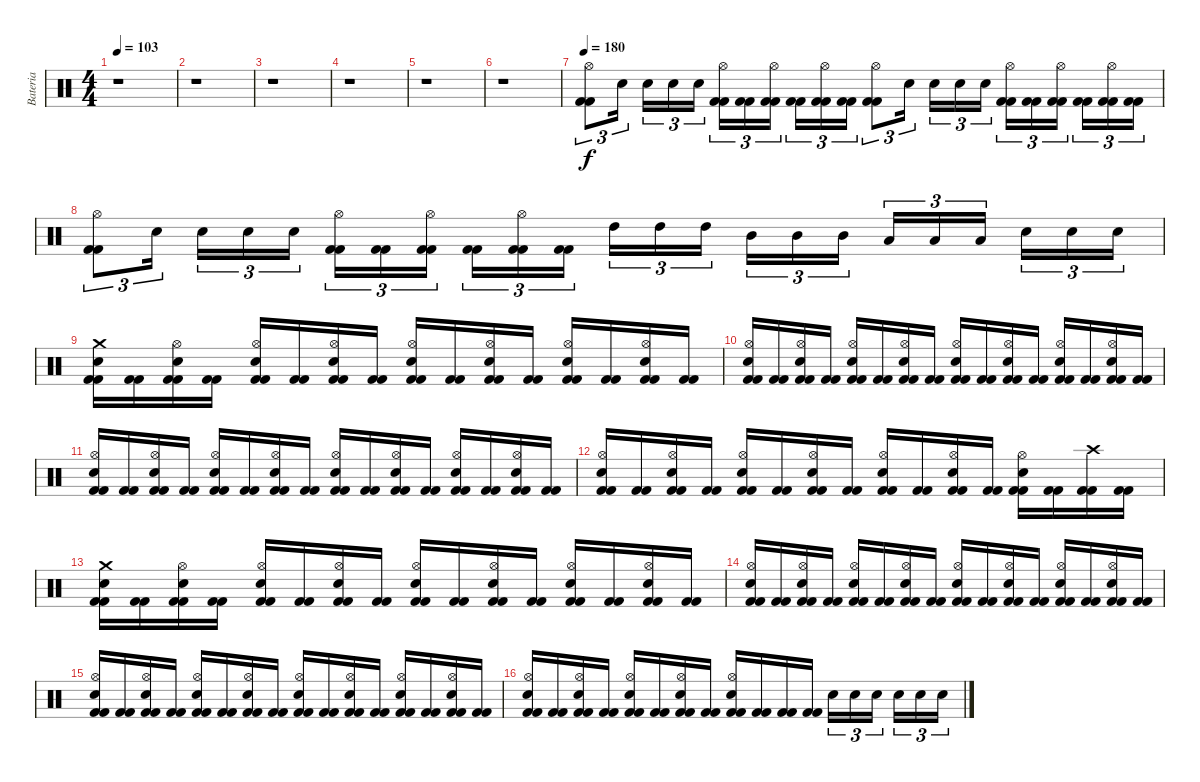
\track ("Bateria" "Bateria") {instrument percussion}
\staff {score}
\articulation defaults
\ts (4 4)
\tempo 103
\clef neutral
\ks c
r.1{dy f} |
r.1 |
r.1 |
r.1 |
r.1 |
r.1 |
\tempo 180
("Kick (hit) 2" "Kick (hit) 2" "Hi-Hat (open)").8{tu (3 2)} "Electric Snare (hit)".16{tu (3 2)} "Electric Snare (hit)".16{tu (3 2)} "Electric Snare (hit)".16{tu (3 2)} "Electric Snare (hit)".16{tu (3 2)} ("Kick (hit) 2" "Kick (hit) 2" "Hi-Hat (open)").16{tu (3 2)} ("Kick (hit) 2" "Kick (hit) 2").16{tu (3 2)} ("Kick (hit) 2" "Kick (hit) 2" "Hi-Hat (open)").16{tu (3 2)} ("Kick (hit) 2" "Kick (hit) 2").16{tu (3 2)} ("Kick (hit) 2" "Kick (hit) 2" "Hi-Hat (open)").16{tu (3 2)} ("Kick (hit) 2" "Kick (hit) 2").16{tu (3 2)} ("Kick (hit) 2" "Kick (hit) 2" "Hi-Hat (open)").8{tu (3 2)} "Electric Snare (hit)".16{tu (3 2)} "Electric Snare (hit)".16{tu (3 2)} "Electric Snare (hit)".16{tu (3 2)} "Electric Snare (hit)".16{tu (3 2)} ("Kick (hit) 2" "Kick (hit) 2" "Hi-Hat (open)").16{tu (3 2)} ("Kick (hit) 2" "Kick (hit) 2").16{tu (3 2)} ("Kick (hit) 2" "Kick (hit) 2" "Hi-Hat (open)").16{tu (3 2)} ("Kick (hit) 2" "Kick (hit) 2").16{tu (3 2)} ("Kick (hit) 2" "Kick (hit) 2" "Hi-Hat (open)").16{tu (3 2)} ("Kick (hit) 2" "Kick (hit) 2").16{tu (3 2)} |
("Kick (hit) 2" "Kick (hit) 2" "Hi-Hat (open)").8{tu (3 2)} "Electric Snare (hit)".16{tu (3 2)} "Electric Snare (hit)".16{tu (3 2)} "Electric Snare (hit)".16{tu (3 2)} "Electric Snare (hit)".16{tu (3 2)} ("Kick (hit) 2" "Kick (hit) 2" "Hi-Hat (open)").16{tu (3 2)} ("Kick (hit) 2" "Kick (hit) 2").16{tu (3 2)} ("Kick (hit) 2" "Kick (hit) 2" "Hi-Hat (open)").16{tu (3 2)} ("Kick (hit) 2" "Kick (hit) 2").16{tu (3 2)} ("Kick (hit) 2" "Kick (hit) 2" "Hi-Hat (open)").16{tu (3 2)} ("Kick (hit) 2" "Kick (hit) 2").16{tu (3 2)} "High Tom (hit)".16{tu (3 2)} "High Tom (hit)".16{tu (3 2)} "High Tom (hit)".16{tu (3 2)} "Mid Tom (hit)".16{tu (3 2)} "Mid Tom (hit)".16{tu (3 2)} "Mid Tom (hit)".16{tu (3 2)} "Low Tom (hit)".16{tu (3 2)} "Low Tom (hit)".16{tu (3 2)} "Low Tom (hit)".16{tu (3 2)} "Electric Snare (hit)".16{tu (3 2)} "Electric Snare (hit)".16{tu (3 2)} "Electric Snare (hit)".16{tu (3 2)} |
("Kick (hit) 2" "Kick (hit) 2" "Electric Snare (hit)" "Crash medium (hit)").16 ("Kick (hit) 2" "Kick (hit) 2").16 ("Kick (hit) 2" "Kick (hit) 2" "Hi-Hat (open)" "Electric Snare (hit)").16 ("Kick (hit) 2" "Kick (hit) 2").16 ("Kick (hit) 2" "Kick (hit) 2" "Electric Snare (hit)" "Hi-Hat (open)").16 ("Kick (hit) 2" "Kick (hit) 2").16 ("Kick (hit) 2" "Kick (hit) 2" "Hi-Hat (open)" "Electric Snare (hit)").16 ("Kick (hit) 2" "Kick (hit) 2").16 ("Kick (hit) 2" "Kick (hit) 2" "Electric Snare (hit)" "Hi-Hat (open)").16 ("Kick (hit) 2" "Kick (hit) 2").16 ("Kick (hit) 2" "Kick (hit) 2" "Hi-Hat (open)" "Electric Snare (hit)").16 ("Kick (hit) 2" "Kick (hit) 2").16 ("Kick (hit) 2" "Kick (hit) 2" "Electric Snare (hit)" "Hi-Hat (open)").16 ("Kick (hit) 2" "Kick (hit) 2").16 ("Kick (hit) 2" "Kick (hit) 2" "Hi-Hat (open)" "Electric Snare (hit)").16 ("Kick (hit) 2" "Kick (hit) 2").16 |
("Kick (hit) 2" "Kick (hit) 2" "Electric Snare (hit)" "Hi-Hat (open)").16 ("Kick (hit) 2" "Kick (hit) 2").16 ("Kick (hit) 2" "Kick (hit) 2" "Hi-Hat (open)" "Electric Snare (hit)").16 ("Kick (hit) 2" "Kick (hit) 2").16 ("Kick (hit) 2" "Kick (hit) 2" "Electric Snare (hit)" "Hi-Hat (open)").16 ("Kick (hit) 2" "Kick (hit) 2").16 ("Kick (hit) 2" "Kick (hit) 2" "Hi-Hat (open)" "Electric Snare (hit)").16 ("Kick (hit) 2" "Kick (hit) 2").16 ("Kick (hit) 2" "Kick (hit) 2" "Electric Snare (hit)" "Hi-Hat (open)").16 ("Kick (hit) 2" "Kick (hit) 2").16 ("Kick (hit) 2" "Kick (hit) 2" "Hi-Hat (open)" "Electric Snare (hit)").16 ("Kick (hit) 2" "Kick (hit) 2").16 ("Kick (hit) 2" "Kick (hit) 2" "Electric Snare (hit)" "Hi-Hat (open)").16 ("Kick (hit) 2" "Kick (hit) 2").16 ("Kick (hit) 2" "Kick (hit) 2" "Hi-Hat (open)" "Electric Snare (hit)").16 ("Kick (hit) 2" "Kick (hit) 2").16 |
("Kick (hit) 2" "Kick (hit) 2" "Electric Snare (hit)" "Hi-Hat (open)").16 ("Kick (hit) 2" "Kick (hit) 2").16 ("Kick (hit) 2" "Kick (hit) 2" "Hi-Hat (open)" "Electric Snare (hit)").16 ("Kick (hit) 2" "Kick (hit) 2").16 ("Kick (hit) 2" "Kick (hit) 2" "Electric Snare (hit)" "Hi-Hat (open)").16 ("Kick (hit) 2" "Kick (hit) 2").16 ("Kick (hit) 2" "Kick (hit) 2" "Hi-Hat (open)" "Electric Snare (hit)").16 ("Kick (hit) 2" "Kick (hit) 2").16 ("Kick (hit) 2" "Kick (hit) 2" "Electric Snare (hit)" "Hi-Hat (open)").16 ("Kick (hit) 2" "Kick (hit) 2").16 ("Kick (hit) 2" "Kick (hit) 2" "Hi-Hat (open)" "Electric Snare (hit)").16 ("Kick (hit) 2" "Kick (hit) 2").16 ("Kick (hit) 2" "Kick (hit) 2" "Electric Snare (hit)" "Hi-Hat (open)").16 ("Kick (hit) 2" "Kick (hit) 2").16 ("Kick (hit) 2" "Kick (hit) 2" "Hi-Hat (open)" "Electric Snare (hit)").16 ("Kick (hit) 2" "Kick (hit) 2").16 |
("Kick (hit) 2" "Kick (hit) 2" "Electric Snare (hit)" "Hi-Hat (open)").16 ("Kick (hit) 2" "Kick (hit) 2").16 ("Kick (hit) 2" "Kick (hit) 2" "Hi-Hat (open)" "Electric Snare (hit)").16 ("Kick (hit) 2" "Kick (hit) 2").16 ("Kick (hit) 2" "Kick (hit) 2" "Electric Snare (hit)" "Hi-Hat (open)").16 ("Kick (hit) 2" "Kick (hit) 2").16 ("Kick (hit) 2" "Kick (hit) 2" "Hi-Hat (open)" "Electric Snare (hit)").16 ("Kick (hit) 2" "Kick (hit) 2").16 ("Kick (hit) 2" "Kick (hit) 2" "Electric Snare (hit)" "Hi-Hat (open)").16 ("Kick (hit) 2" "Kick (hit) 2").16 ("Kick (hit) 2" "Kick (hit) 2" "Hi-Hat (open)" "Electric Snare (hit)").16 ("Kick (hit) 2" "Kick (hit) 2").16 ("Kick (hit) 2" "Kick (hit) 2" "Electric Snare (hit)" "Hi-Hat (open)").16 ("Kick (hit) 2" "Kick (hit) 2").16 ("Kick (hit) 2" "Kick (hit) 2" "Crash high (hit)").16 ("Kick (hit) 2" "Kick (hit) 2").16 |
("Kick (hit) 2" "Kick (hit) 2" "Electric Snare (hit)" "Crash medium (hit)").16 ("Kick (hit) 2" "Kick (hit) 2").16 ("Kick (hit) 2" "Kick (hit) 2" "Hi-Hat (open)" "Electric Snare (hit)").16 ("Kick (hit) 2" "Kick (hit) 2").16 ("Kick (hit) 2" "Kick (hit) 2" "Electric Snare (hit)" "Hi-Hat (open)").16 ("Kick (hit) 2" "Kick (hit) 2").16 ("Kick (hit) 2" "Kick (hit) 2" "Hi-Hat (open)" "Electric Snare (hit)").16 ("Kick (hit) 2" "Kick (hit) 2").16 ("Kick (hit) 2" "Kick (hit) 2" "Electric Snare (hit)" "Hi-Hat (open)").16 ("Kick (hit) 2" "Kick (hit) 2").16 ("Kick (hit) 2" "Kick (hit) 2" "Hi-Hat (open)" "Electric Snare (hit)").16 ("Kick (hit) 2" "Kick (hit) 2").16 ("Kick (hit) 2" "Kick (hit) 2" "Electric Snare (hit)" "Hi-Hat (open)").16 ("Kick (hit) 2" "Kick (hit) 2").16 ("Kick (hit) 2" "Kick (hit) 2" "Hi-Hat (open)" "Electric Snare (hit)").16 ("Kick (hit) 2" "Kick (hit) 2").16 |
("Kick (hit) 2" "Kick (hit) 2" "Electric Snare (hit)" "Hi-Hat (open)").16 ("Kick (hit) 2" "Kick (hit) 2").16 ("Kick (hit) 2" "Kick (hit) 2" "Hi-Hat (open)" "Electric Snare (hit)").16 ("Kick (hit) 2" "Kick (hit) 2").16 ("Kick (hit) 2" "Kick (hit) 2" "Electric Snare (hit)" "Hi-Hat (open)").16 ("Kick (hit) 2" "Kick (hit) 2").16 ("Kick (hit) 2" "Kick (hit) 2" "Hi-Hat (open)" "Electric Snare (hit)").16 ("Kick (hit) 2" "Kick (hit) 2").16 ("Kick (hit) 2" "Kick (hit) 2" "Electric Snare (hit)" "Hi-Hat (open)").16 ("Kick (hit) 2" "Kick (hit) 2").16 ("Kick (hit) 2" "Kick (hit) 2" "Hi-Hat (open)" "Electric Snare (hit)").16 ("Kick (hit) 2" "Kick (hit) 2").16 ("Kick (hit) 2" "Kick (hit) 2" "Electric Snare (hit)" "Hi-Hat (open)").16 ("Kick (hit) 2" "Kick (hit) 2").16 ("Kick (hit) 2" "Kick (hit) 2" "Hi-Hat (open)" "Electric Snare (hit)").16 ("Kick (hit) 2" "Kick (hit) 2").16 |
("Kick (hit) 2" "Kick (hit) 2" "Electric Snare (hit)" "Hi-Hat (open)").16 ("Kick (hit) 2" "Kick (hit) 2").16 ("Kick (hit) 2" "Kick (hit) 2" "Hi-Hat (open)" "Electric Snare (hit)").16 ("Kick (hit) 2" "Kick (hit) 2").16 ("Kick (hit) 2" "Kick (hit) 2" "Electric Snare (hit)" "Hi-Hat (open)").16 ("Kick (hit) 2" "Kick (hit) 2").16 ("Kick (hit) 2" "Kick (hit) 2" "Hi-Hat (open)" "Electric Snare (hit)").16 ("Kick (hit) 2" "Kick (hit) 2").16 ("Kick (hit) 2" "Kick (hit) 2" "Electric Snare (hit)" "Hi-Hat (open)").16 ("Kick (hit) 2" "Kick (hit) 2").16 ("Kick (hit) 2" "Kick (hit) 2" "Hi-Hat (open)" "Electric Snare (hit)").16 ("Kick (hit) 2" "Kick (hit) 2").16 ("Kick (hit) 2" "Kick (hit) 2" "Electric Snare (hit)" "Hi-Hat (open)").16 ("Kick (hit) 2" "Kick (hit) 2").16 ("Kick (hit) 2" "Kick (hit) 2" "Hi-Hat (open)" "Electric Snare (hit)").16 ("Kick (hit) 2" "Kick (hit) 2").16 |
("Kick (hit) 2" "Kick (hit) 2" "Electric Snare (hit)" "Hi-Hat (open)").16 ("Kick (hit) 2" "Kick (hit) 2").16 ("Kick (hit) 2" "Kick (hit) 2" "Hi-Hat (open)" "Electric Snare (hit)").16 ("Kick (hit) 2" "Kick (hit) 2").16 ("Kick (hit) 2" "Kick (hit) 2" "Electric Snare (hit)" "Hi-Hat (open)").16 ("Kick (hit) 2" "Kick (hit) 2").16 ("Kick (hit) 2" "Kick (hit) 2" "Hi-Hat (open)" "Electric Snare (hit)").16 ("Kick (hit) 2" "Kick (hit) 2").16 ("Kick (hit) 2" "Kick (hit) 2" "Hi-Hat (open)" "Electric Snare (hit)").16 ("Kick (hit) 2" "Kick (hit) 2").16 ("Kick (hit) 2" "Kick (hit) 2").16 ("Kick (hit) 2" "Kick (hit) 2").16 "Electric Snare (hit)".16{tu (3 2)} "Electric Snare (hit)".16{tu (3 2)} "Electric Snare (hit)".16{tu (3 2)} "Electric Snare (hit)".16{tu (3 2)} "Electric Snare (hit)".16{tu (3 2)} "Electric Snare (hit)".16{tu (3 2)}
